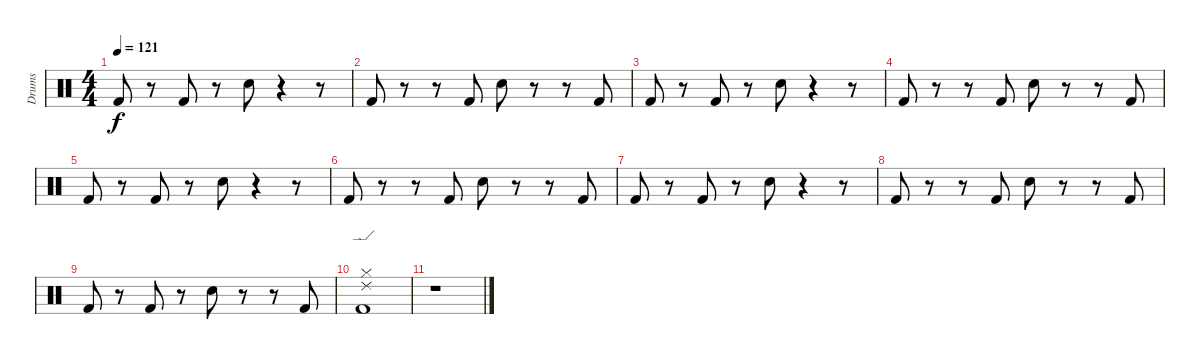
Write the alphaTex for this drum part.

\track ("Drums" "Drums") {instrument percussion}
\staff {score}
\articulation defaults
\ts (4 4)
\tempo 121
\clef neutral
\ks c "Kick (hit) 2".8{dy f}
r.8 "Kick (hit) 2".8 r.8 "Electric Snare (hit)".8 r.4 r.8 |
"Kick (hit) 2".8 r.8 r.8 "Kick (hit) 2".8 "Electric Snare (hit)".8 r.8 r.8 "Kick (hit) 2".8 |
"Kick (hit) 2".8 r.8 "Kick (hit) 2".8 r.8 "Electric Snare (hit)".8 r.4 r.8 |
"Kick (hit) 2".8 r.8 r.8 "Kick (hit) 2".8 "Electric Snare (hit)".8 r.8 r.8 "Kick (hit) 2".8 |
"Kick (hit) 2".8 r.8 "Kick (hit) 2".8 r.8 "Electric Snare (hit)".8 r.4 r.8 |
"Kick (hit) 2".8 r.8 r.8 "Kick (hit) 2".8 "Electric Snare (hit)".8 r.8 r.8 "Kick (hit) 2".8 |
"Kick (hit) 2".8 r.8 "Kick (hit) 2".8 r.8 "Electric Snare (hit)".8 r.4 r.8 |
"Kick (hit) 2".8 r.8 r.8 "Kick (hit) 2".8 "Electric Snare (hit)".8 r.8 r.8 "Kick (hit) 2".8 |
"Kick (hit) 2".8 r.8 "Kick (hit) 2".8 r.8 "Electric Snare (hit)".8 r.8 r.8 "Kick (hit) 2".8 |
("Hi-Hat (closed)" "Ride (edge) 2" "Kick (hit) 2").1 |
r.1
